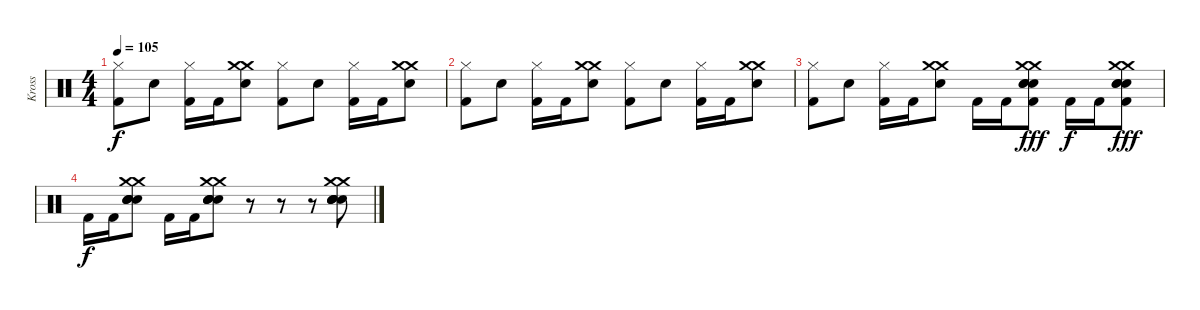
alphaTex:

\track ("Kross" "Kross") {instrument percussion}
\staff {score}
\articulation defaults
\ts (4 4)
\tempo 105
\clef neutral
\ks c
("Hi-Hat (closed)" "Kick (hit) 2").8{dy f} "Snare (hit) 2".8 ("Hi-Hat (closed)" "Kick (hit) 2").16 "Kick (hit) 2".16 ("Crash medium (hit)" "Crash medium (hit)" "Snare (hit) 2").8 ("Hi-Hat (closed)" "Kick (hit) 2").8 "Snare (hit) 2".8 ("Hi-Hat (closed)" "Kick (hit) 2").16 "Kick (hit) 2".16 ("Crash medium (hit)" "Crash medium (hit)" "Snare (hit) 2").8 |
("Hi-Hat (closed)" "Kick (hit) 2").8 "Snare (hit) 2".8 ("Hi-Hat (closed)" "Kick (hit) 2").16 "Kick (hit) 2".16 ("Crash medium (hit)" "Crash medium (hit)" "Snare (hit) 2").8 ("Hi-Hat (closed)" "Kick (hit) 2").8 "Snare (hit) 2".8 ("Hi-Hat (closed)" "Kick (hit) 2").16 "Kick (hit) 2".16 ("Crash medium (hit)" "Crash medium (hit)" "Snare (hit) 2").8 |
("Hi-Hat (closed)" "Kick (hit) 2").8 "Snare (hit) 2".8 ("Hi-Hat (closed)" "Kick (hit) 2").16 "Kick (hit) 2".16 ("Crash medium (hit)" "Crash medium (hit)" "Snare (hit) 2").8 "Kick (hit) 2".16 "Kick (hit) 2".16 ("Crash medium (hit)" "Crash medium (hit)" "Snare (hit) 2" "Snare (hit) 2" "Snare (hit) 2" "Kick (hit) 2").8{dy fff} "Kick (hit) 2".16{dy f} "Kick (hit) 2".16 ("Crash medium (hit)" "Crash medium (hit)" "Snare (hit) 2" "Snare (hit) 2" "Snare (hit) 2" "Kick (hit) 2").8{dy fff} |
"Kick (hit) 2".16{dy f} "Kick (hit) 2".16 ("Crash medium (hit)" "Crash medium (hit)" "Snare (hit) 2" "Snare (hit) 2" "Snare (hit) 2" "Snare (hit) 2").8 "Kick (hit) 2".16 "Kick (hit) 2".16 ("Crash medium (hit)" "Crash medium (hit)" "Snare (hit) 2" "Snare (hit) 2" "Snare (hit) 2" "Snare (hit) 2").8 r.8 r.8 r.8 ("Crash medium (hit)" "Crash medium (hit)" "Snare (hit) 2" "Snare (hit) 2" "Snare (hit) 2" "Snare (hit) 2").8
